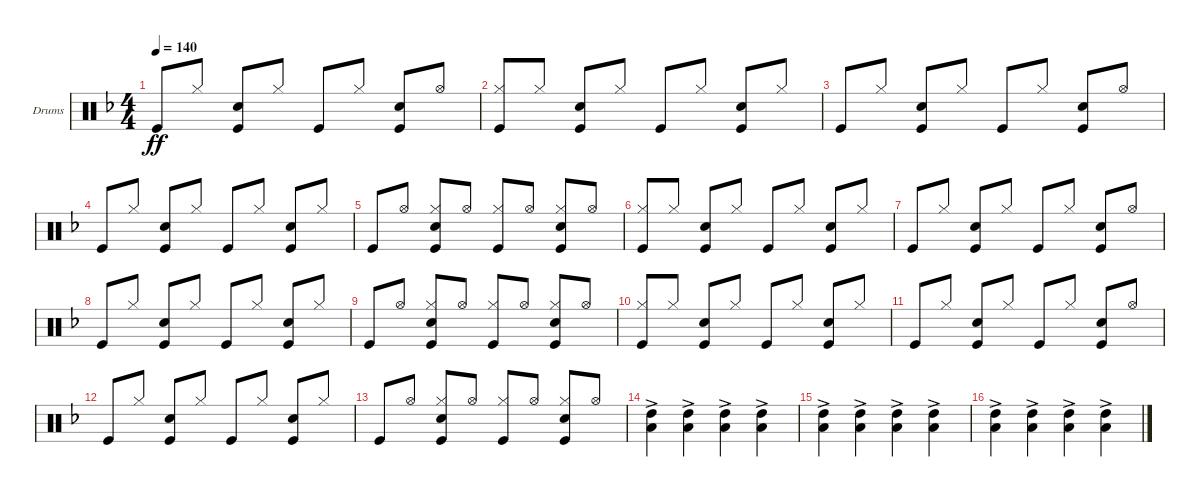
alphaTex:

\defaultSystemsLayout 4
\bracketExtendMode groupsimilarinstruments
\firstSystemTrackNameOrientation horizontal
\otherSystemsTrackNameOrientation horizontal
\track ("Drumkit" "Drums") {instrument percussion}
\staff {score}
\articulation defaults
\ts (4 4)
\tempo 140
\clef neutral
\ks f "Kick (hit)".8{dy ff beam invert} "Hi-Hat (closed)".8
("Snare (hit) 2" "Kick (hit)").8{beam invert} "Hi-Hat (closed)".8 "Kick (hit)".8{beam invert} "Hi-Hat (closed)".8 ("Snare (hit) 2" "Kick (hit)").8{beam invert} "Hi-Hat (open)".8 |
("Kick (hit)" "Hi-Hat (closed)").8{beam invert} "Hi-Hat (closed)".8 ("Snare (hit) 2" "Kick (hit)").8{beam invert} "Hi-Hat (closed)".8 "Kick (hit)".8{beam invert} "Hi-Hat (closed)".8 ("Snare (hit) 2" "Kick (hit)").8{beam invert} "Hi-Hat (closed)".8 |
"Kick (hit)".8{beam invert} "Hi-Hat (closed)".8 ("Snare (hit) 2" "Kick (hit)").8{beam invert} "Hi-Hat (closed)".8 "Kick (hit)".8{beam invert} "Hi-Hat (closed)".8 ("Snare (hit) 2" "Kick (hit)").8{beam invert} "Hi-Hat (open)".8 |
"Kick (hit)".8{beam invert} "Hi-Hat (closed)".8 ("Snare (hit) 2" "Kick (hit)").8{beam invert} "Hi-Hat (closed)".8 "Kick (hit)".8{beam invert} "Hi-Hat (closed)".8 ("Snare (hit) 2" "Kick (hit)").8{beam invert} "Hi-Hat (closed)".8 |
"Kick (hit)".8{beam invert} "Hi-Hat (open)".8 ("Snare (hit) 2" "Kick (hit)" "Hi-Hat (closed)").8{beam invert} "Hi-Hat (open)".8 ("Kick (hit)" "Hi-Hat (closed)").8{beam invert} "Hi-Hat (open)".8 ("Snare (hit) 2" "Kick (hit)" "Hi-Hat (closed)").8{beam invert} "Hi-Hat (open)".8 |
("Kick (hit)" "Hi-Hat (closed)").8{beam invert} "Hi-Hat (closed)".8 ("Snare (hit) 2" "Kick (hit)").8{beam invert} "Hi-Hat (closed)".8 "Kick (hit)".8{beam invert} "Hi-Hat (closed)".8 ("Snare (hit) 2" "Kick (hit)").8{beam invert} "Hi-Hat (closed)".8 |
"Kick (hit)".8{beam invert} "Hi-Hat (closed)".8 ("Snare (hit) 2" "Kick (hit)").8{beam invert} "Hi-Hat (closed)".8 "Kick (hit)".8{beam invert} "Hi-Hat (closed)".8 ("Snare (hit) 2" "Kick (hit)").8{beam invert} "Hi-Hat (open)".8 |
"Kick (hit)".8{beam invert} "Hi-Hat (closed)".8 ("Snare (hit) 2" "Kick (hit)").8{beam invert} "Hi-Hat (closed)".8 "Kick (hit)".8{beam invert} "Hi-Hat (closed)".8 ("Snare (hit) 2" "Kick (hit)").8{beam invert} "Hi-Hat (closed)".8 |
"Kick (hit)".8{beam invert} "Hi-Hat (open)".8 ("Snare (hit) 2" "Kick (hit)" "Hi-Hat (closed)").8{beam invert} "Hi-Hat (open)".8 ("Kick (hit)" "Hi-Hat (closed)").8{beam invert} "Hi-Hat (open)".8 ("Snare (hit) 2" "Kick (hit)" "Hi-Hat (closed)").8{beam invert} "Hi-Hat (open)".8 |
("Kick (hit)" "Hi-Hat (closed)").8{beam invert} "Hi-Hat (closed)".8 ("Snare (hit) 2" "Kick (hit)").8{beam invert} "Hi-Hat (closed)".8 "Kick (hit)".8{beam invert} "Hi-Hat (closed)".8 ("Snare (hit) 2" "Kick (hit)").8{beam invert} "Hi-Hat (closed)".8 |
"Kick (hit)".8{beam invert} "Hi-Hat (closed)".8 ("Snare (hit) 2" "Kick (hit)").8{beam invert} "Hi-Hat (closed)".8 "Kick (hit)".8{beam invert} "Hi-Hat (closed)".8 ("Snare (hit) 2" "Kick (hit)").8{beam invert} "Hi-Hat (open)".8 |
"Kick (hit)".8{beam invert} "Hi-Hat (closed)".8 ("Snare (hit) 2" "Kick (hit)").8{beam invert} "Hi-Hat (closed)".8 "Kick (hit)".8{beam invert} "Hi-Hat (closed)".8 ("Snare (hit) 2" "Kick (hit)").8{beam invert} "Hi-Hat (closed)".8 |
"Kick (hit)".8{beam invert} "Hi-Hat (open)".8 ("Snare (hit) 2" "Kick (hit)" "Hi-Hat (closed)").8{beam invert} "Hi-Hat (open)".8 ("Kick (hit)" "Hi-Hat (closed)").8{beam invert} "Hi-Hat (open)".8 ("Snare (hit) 2" "Kick (hit)" "Hi-Hat (closed)").8{beam invert} "Hi-Hat (open)".8 |
("Low Tom (hit)"{ac} "High Tom (hit)"{ac}).4 ("Low Tom (hit)"{ac} "High Tom (hit)"{ac}).4 ("Low Tom (hit)"{ac} "High Tom (hit)"{ac}).4 ("Low Tom (hit)"{ac} "High Tom (hit)"{ac}).4 |
("Low Tom (hit)"{ac} "High Tom (hit)"{ac}).4 ("Low Tom (hit)"{ac} "High Tom (hit)"{ac}).4 ("Low Tom (hit)"{ac} "High Tom (hit)"{ac}).4 ("Low Tom (hit)"{ac} "High Tom (hit)"{ac}).4 |
("Low Tom (hit)"{ac} "High Tom (hit)"{ac}).4 ("Low Tom (hit)"{ac} "High Tom (hit)"{ac}).4 ("Low Tom (hit)"{ac} "High Tom (hit)"{ac}).4 ("Low Tom (hit)"{ac} "High Tom (hit)"{ac}).4
